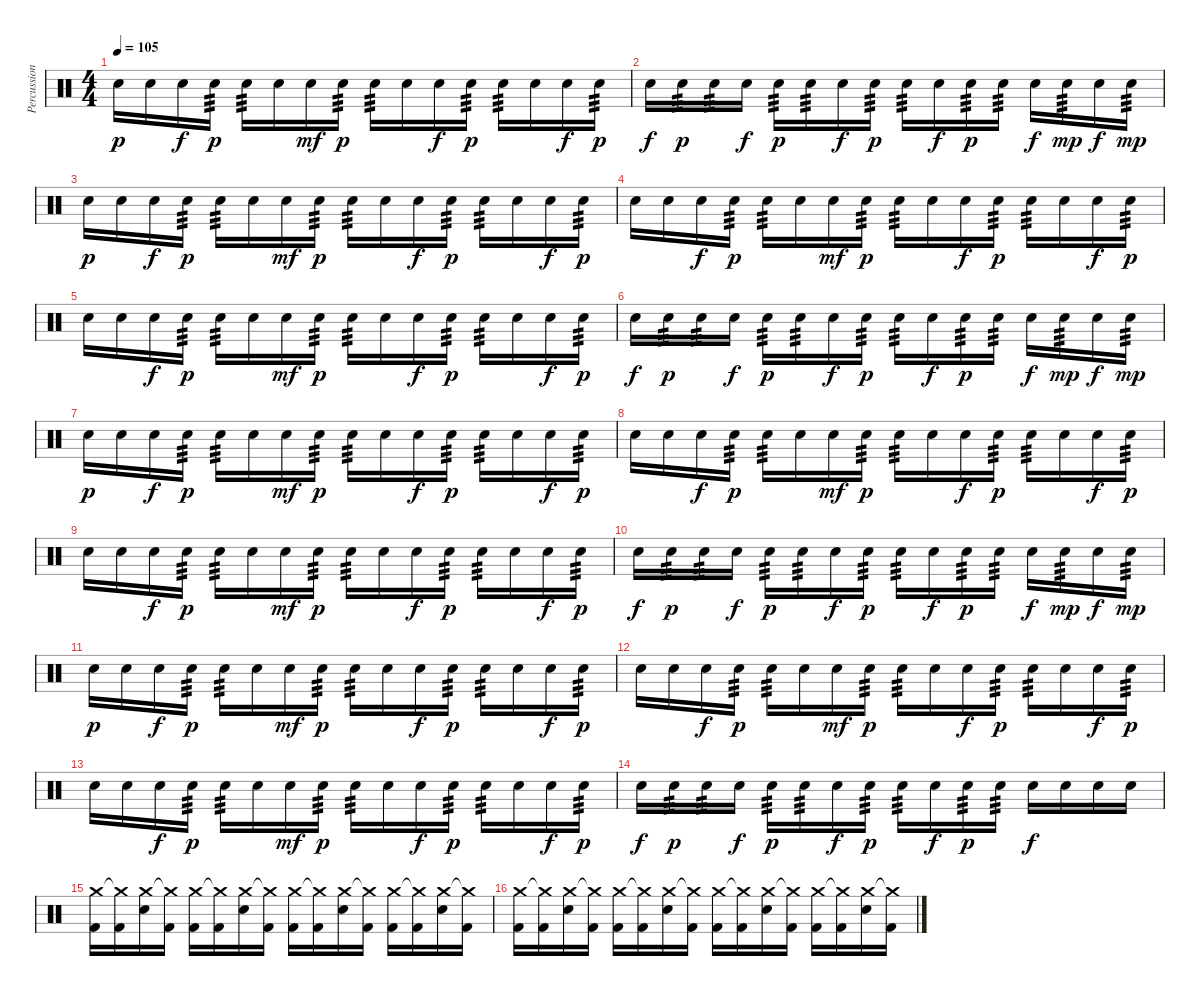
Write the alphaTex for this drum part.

\track ("Percussions" "Percussion") {instrument percussion}
\staff {score}
\articulation defaults
\ts (4 4)
\tempo 105
\clef neutral
\ks c "Electric Snare (hit)".16{dy p} "Electric Snare (hit)".16 "Electric Snare (hit)".16{dy f} "Electric Snare (hit)".16{tp 3 dy p} "Electric Snare (hit)".16{tp 3} "Electric Snare (hit)".16 "Electric Snare (hit)".16{dy mf} "Electric Snare (hit)".16{tp 3 dy p} "Electric Snare (hit)".16{tp 3} "Electric Snare (hit)".16 "Electric Snare (hit)".16{dy f} "Electric Snare (hit)".16{tp 3 dy p} "Electric Snare (hit)".16{tp 3} "Electric Snare (hit)".16 "Electric Snare (hit)".16{dy f} "Electric Snare (hit)".16{tp 3 dy p}
|
"Electric Snare (hit)".16{dy f} "Electric Snare (hit)".16{tp 3 dy p} "Electric Snare (hit)".16{tp 3} "Electric Snare (hit)".16{dy f} "Electric Snare (hit)".16{tp 3 dy p} "Electric Snare (hit)".16{tp 3} "Electric Snare (hit)".16{dy f} "Electric Snare (hit)".16{tp 3 dy p} "Electric Snare (hit)".16{tp 3} "Electric Snare (hit)".16{dy f} "Electric Snare (hit)".16{tp 3 dy p} "Electric Snare (hit)".16{tp 3} "Electric Snare (hit)".16{dy f} "Electric Snare (hit)".16{tp 3 dy mp} "Electric Snare (hit)".16{dy f} "Electric Snare (hit)".16{tp 3 dy mp} |
"Electric Snare (hit)".16{dy p} "Electric Snare (hit)".16 "Electric Snare (hit)".16{dy f} "Electric Snare (hit)".16{tp 3 dy p} "Electric Snare (hit)".16{tp 3} "Electric Snare (hit)".16 "Electric Snare (hit)".16{dy mf} "Electric Snare (hit)".16{tp 3 dy p} "Electric Snare (hit)".16{tp 3} "Electric Snare (hit)".16 "Electric Snare (hit)".16{dy f} "Electric Snare (hit)".16{tp 3 dy p} "Electric Snare (hit)".16{tp 3} "Electric Snare (hit)".16 "Electric Snare (hit)".16{dy f} "Electric Snare (hit)".16{tp 3 dy p} |
"Electric Snare (hit)".16 "Electric Snare (hit)".16 "Electric Snare (hit)".16{dy f} "Electric Snare (hit)".16{tp 3 dy p} "Electric Snare (hit)".16{tp 3} "Electric Snare (hit)".16 "Electric Snare (hit)".16{dy mf} "Electric Snare (hit)".16{tp 3 dy p} "Electric Snare (hit)".16{tp 3} "Electric Snare (hit)".16 "Electric Snare (hit)".16{dy f} "Electric Snare (hit)".16{tp 3 dy p} "Electric Snare (hit)".16{tp 3} "Electric Snare (hit)".16 "Electric Snare (hit)".16{dy f} "Electric Snare (hit)".16{tp 3 dy p} |
"Electric Snare (hit)".16 "Electric Snare (hit)".16 "Electric Snare (hit)".16{dy f} "Electric Snare (hit)".16{tp 3 dy p} "Electric Snare (hit)".16{tp 3} "Electric Snare (hit)".16 "Electric Snare (hit)".16{dy mf} "Electric Snare (hit)".16{tp 3 dy p} "Electric Snare (hit)".16{tp 3} "Electric Snare (hit)".16 "Electric Snare (hit)".16{dy f} "Electric Snare (hit)".16{tp 3 dy p} "Electric Snare (hit)".16{tp 3} "Electric Snare (hit)".16 "Electric Snare (hit)".16{dy f} "Electric Snare (hit)".16{tp 3 dy p} |
"Electric Snare (hit)".16{dy f} "Electric Snare (hit)".16{tp 3 dy p} "Electric Snare (hit)".16{tp 3} "Electric Snare (hit)".16{dy f} "Electric Snare (hit)".16{tp 3 dy p} "Electric Snare (hit)".16{tp 3} "Electric Snare (hit)".16{dy f} "Electric Snare (hit)".16{tp 3 dy p} "Electric Snare (hit)".16{tp 3} "Electric Snare (hit)".16{dy f} "Electric Snare (hit)".16{tp 3 dy p} "Electric Snare (hit)".16{tp 3} "Electric Snare (hit)".16{dy f} "Electric Snare (hit)".16{tp 3 dy mp} "Electric Snare (hit)".16{dy f} "Electric Snare (hit)".16{tp 3 dy mp} |
"Electric Snare (hit)".16{dy p} "Electric Snare (hit)".16 "Electric Snare (hit)".16{dy f} "Electric Snare (hit)".16{tp 3 dy p} "Electric Snare (hit)".16{tp 3} "Electric Snare (hit)".16 "Electric Snare (hit)".16{dy mf} "Electric Snare (hit)".16{tp 3 dy p} "Electric Snare (hit)".16{tp 3} "Electric Snare (hit)".16 "Electric Snare (hit)".16{dy f} "Electric Snare (hit)".16{tp 3 dy p} "Electric Snare (hit)".16{tp 3} "Electric Snare (hit)".16 "Electric Snare (hit)".16{dy f} "Electric Snare (hit)".16{tp 3 dy p} |
"Electric Snare (hit)".16 "Electric Snare (hit)".16 "Electric Snare (hit)".16{dy f} "Electric Snare (hit)".16{tp 3 dy p} "Electric Snare (hit)".16{tp 3} "Electric Snare (hit)".16 "Electric Snare (hit)".16{dy mf} "Electric Snare (hit)".16{tp 3 dy p} "Electric Snare (hit)".16{tp 3} "Electric Snare (hit)".16 "Electric Snare (hit)".16{dy f} "Electric Snare (hit)".16{tp 3 dy p} "Electric Snare (hit)".16{tp 3} "Electric Snare (hit)".16 "Electric Snare (hit)".16{dy f} "Electric Snare (hit)".16{tp 3 dy p} |
"Electric Snare (hit)".16 "Electric Snare (hit)".16 "Electric Snare (hit)".16{dy f} "Electric Snare (hit)".16{tp 3 dy p} "Electric Snare (hit)".16{tp 3} "Electric Snare (hit)".16 "Electric Snare (hit)".16{dy mf} "Electric Snare (hit)".16{tp 3 dy p} "Electric Snare (hit)".16{tp 3} "Electric Snare (hit)".16 "Electric Snare (hit)".16{dy f} "Electric Snare (hit)".16{tp 3 dy p} "Electric Snare (hit)".16{tp 3} "Electric Snare (hit)".16 "Electric Snare (hit)".16{dy f} "Electric Snare (hit)".16{tp 3 dy p} |
"Electric Snare (hit)".16{dy f} "Electric Snare (hit)".16{tp 3 dy p} "Electric Snare (hit)".16{tp 3} "Electric Snare (hit)".16{dy f} "Electric Snare (hit)".16{tp 3 dy p} "Electric Snare (hit)".16{tp 3} "Electric Snare (hit)".16{dy f} "Electric Snare (hit)".16{tp 3 dy p} "Electric Snare (hit)".16{tp 3} "Electric Snare (hit)".16{dy f} "Electric Snare (hit)".16{tp 3 dy p} "Electric Snare (hit)".16{tp 3} "Electric Snare (hit)".16{dy f} "Electric Snare (hit)".16{tp 3 dy mp} "Electric Snare (hit)".16{dy f} "Electric Snare (hit)".16{tp 3 dy mp} |
"Electric Snare (hit)".16{dy p} "Electric Snare (hit)".16 "Electric Snare (hit)".16{dy f} "Electric Snare (hit)".16{tp 3 dy p} "Electric Snare (hit)".16{tp 3} "Electric Snare (hit)".16 "Electric Snare (hit)".16{dy mf} "Electric Snare (hit)".16{tp 3 dy p} "Electric Snare (hit)".16{tp 3} "Electric Snare (hit)".16 "Electric Snare (hit)".16{dy f} "Electric Snare (hit)".16{tp 3 dy p} "Electric Snare (hit)".16{tp 3} "Electric Snare (hit)".16 "Electric Snare (hit)".16{dy f} "Electric Snare (hit)".16{tp 3 dy p} |
"Electric Snare (hit)".16 "Electric Snare (hit)".16 "Electric Snare (hit)".16{dy f} "Electric Snare (hit)".16{tp 3 dy p} "Electric Snare (hit)".16{tp 3} "Electric Snare (hit)".16 "Electric Snare (hit)".16{dy mf} "Electric Snare (hit)".16{tp 3 dy p} "Electric Snare (hit)".16{tp 3} "Electric Snare (hit)".16 "Electric Snare (hit)".16{dy f} "Electric Snare (hit)".16{tp 3 dy p} "Electric Snare (hit)".16{tp 3} "Electric Snare (hit)".16 "Electric Snare (hit)".16{dy f} "Electric Snare (hit)".16{tp 3 dy p} |
"Electric Snare (hit)".16 "Electric Snare (hit)".16 "Electric Snare (hit)".16{dy f} "Electric Snare (hit)".16{tp 3 dy p} "Electric Snare (hit)".16{tp 3} "Electric Snare (hit)".16 "Electric Snare (hit)".16{dy mf} "Electric Snare (hit)".16{tp 3 dy p} "Electric Snare (hit)".16{tp 3} "Electric Snare (hit)".16 "Electric Snare (hit)".16{dy f} "Electric Snare (hit)".16{tp 3 dy p} "Electric Snare (hit)".16{tp 3} "Electric Snare (hit)".16 "Electric Snare (hit)".16{dy f} "Electric Snare (hit)".16{tp 3 dy p} |
"Electric Snare (hit)".16{dy f} "Electric Snare (hit)".16{tp 3 dy p} "Electric Snare (hit)".16{tp 3} "Electric Snare (hit)".16{dy f} "Electric Snare (hit)".16{tp 3 dy p} "Electric Snare (hit)".16{tp 3} "Electric Snare (hit)".16{dy f} "Electric Snare (hit)".16{tp 3 dy p} "Electric Snare (hit)".16{tp 3} "Electric Snare (hit)".16{dy f} "Electric Snare (hit)".16{tp 3 dy p} "Electric Snare (hit)".16{tp 3} "Electric Snare (hit)".16{dy f} "Electric Snare (hit)".16 "Electric Snare (hit)".16 "Electric Snare (hit)".16 |
("Kick (hit) 2" "Crash medium (hit)").16 ("Kick (hit) 2" "Crash medium (hit)"{t}).16 ("Electric Snare (hit)" "Crash medium (hit)").16 ("Kick (hit) 2" "Crash medium (hit)"{t}).16 ("Kick (hit) 2" "Crash medium (hit)").16 ("Kick (hit) 2" "Crash medium (hit)"{t}).16 ("Electric Snare (hit)" "Crash medium (hit)").16 ("Kick (hit) 2" "Crash medium (hit)"{t}).16 ("Kick (hit) 2" "Crash medium (hit)").16 ("Kick (hit) 2" "Crash medium (hit)"{t}).16 ("Electric Snare (hit)" "Crash medium (hit)").16 ("Kick (hit) 2" "Crash medium (hit)"{t}).16 ("Kick (hit) 2" "Crash medium (hit)").16 ("Kick (hit) 2" "Crash medium (hit)"{t}).16 ("Electric Snare (hit)" "Crash medium (hit)").16 ("Kick (hit) 2" "Crash medium (hit)"{t}).16 |
("Kick (hit) 2" "Crash medium (hit)").16 ("Kick (hit) 2" "Crash medium (hit)"{t}).16 ("Electric Snare (hit)" "Crash medium (hit)").16 ("Kick (hit) 2" "Crash medium (hit)"{t}).16 ("Kick (hit) 2" "Crash medium (hit)").16 ("Kick (hit) 2" "Crash medium (hit)"{t}).16 ("Electric Snare (hit)" "Crash medium (hit)").16 ("Kick (hit) 2" "Crash medium (hit)"{t}).16 ("Kick (hit) 2" "Crash medium (hit)").16 ("Kick (hit) 2" "Crash medium (hit)"{t}).16 ("Electric Snare (hit)" "Crash medium (hit)").16 ("Kick (hit) 2" "Crash medium (hit)"{t}).16 ("Kick (hit) 2" "Crash medium (hit)").16 ("Kick (hit) 2" "Crash medium (hit)"{t}).16 ("Electric Snare (hit)" "Crash medium (hit)").16 ("Kick (hit) 2" "Crash medium (hit)"{t}).16
